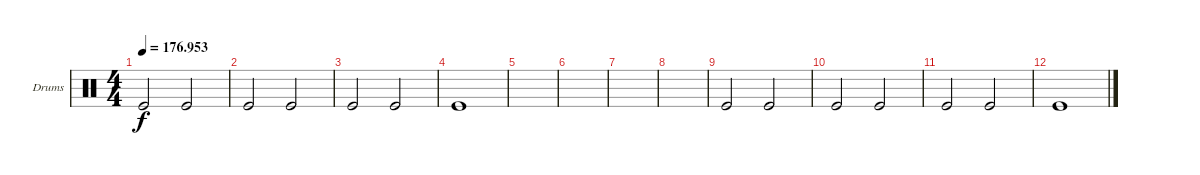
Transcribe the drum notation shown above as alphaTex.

\defaultSystemsLayout 4
\bracketExtendMode groupsimilarinstruments
\firstSystemTrackNameOrientation horizontal
\otherSystemsTrackNameOrientation horizontal
\track ("Flake" "Drums") {instrument percussion}
\staff {score}
\articulation defaults
\ts (4 4)
\tempo
176.953
\accidentals auto
\clef neutral
\ottava regular
\simile none
\ks c "Kick (hit)".2{dy f} "Kick (hit)".2
|
"Kick (hit)".2 "Kick (hit)".2 |
"Kick (hit)".2 "Kick (hit)".2 |
"Kick (hit)".1 |
|
|
|
|
"Kick (hit)".2 "Kick (hit)".2 |
"Kick (hit)".2 "Kick (hit)".2 |
"Kick (hit)".2 "Kick (hit)".2 |
"Kick (hit)".1
